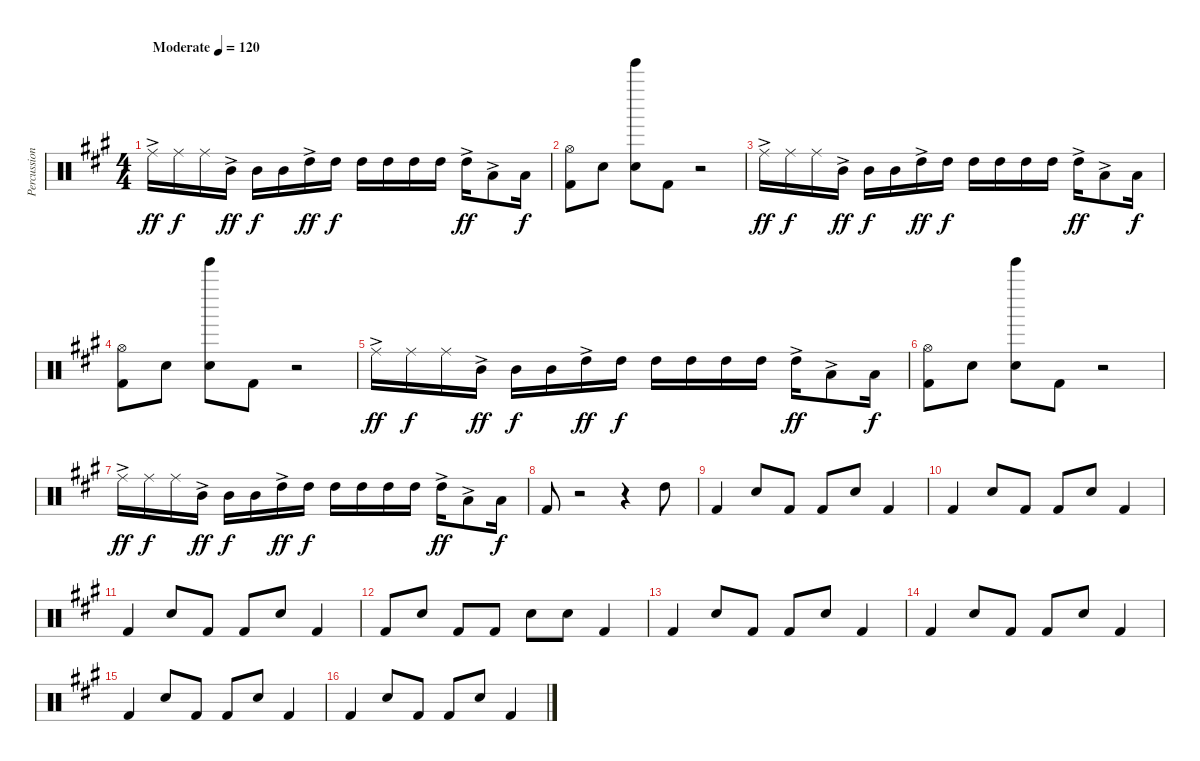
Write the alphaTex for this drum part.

\track ("Percussion" "Percussion") {instrument percussion}
\staff {score}
\articulation defaults
\ts (4 4)
\tempo (120 "Moderate")
\clef neutral
\ks a "Ride (middle)"{ac}.16{dy ff} "Ride (middle)".16{dy f} "Ride (middle)".16 "Mid Tom (hit)"{ac}.16{dy ff} "Mid Tom (hit)".16{dy f} "Mid Tom (hit)".16 "High Tom (hit)"{ac}.16{dy ff} "High Tom (hit)".16{dy f} "High Tom (hit)".16 "High Tom (hit)".16 "High Tom (hit)".16 "High Tom (hit)".16 "High Tom (hit)"{ac}.16{dy ff} "Low Floor Tom (hit)"{ac}.8 "Low Floor Tom (hit)".16{dy f}
|
("Hi-Hat (open)" "Kick (hit) 2").8 "Snare (hit) 2".8 ("Tinkle Bell (hit)" "Snare (hit) 2").8 "Kick (hit) 2".8 r.2 |
"Ride (middle)"{ac}.16{dy ff} "Ride (middle)".16{dy f} "Ride (middle)".16 "Mid Tom (hit)"{ac}.16{dy ff} "Mid Tom (hit)".16{dy f} "Mid Tom (hit)".16 "High Tom (hit)"{ac}.16{dy ff} "High Tom (hit)".16{dy f} "High Tom (hit)".16 "High Tom (hit)".16 "High Tom (hit)".16 "High Tom (hit)".16 "High Tom (hit)"{ac}.16{dy ff} "Low Floor Tom (hit)"{ac}.8 "Low Floor Tom (hit)".16{dy f} |
("Hi-Hat (open)" "Kick (hit) 2").8 "Snare (hit) 2".8 ("Tinkle Bell (hit)" "Snare (hit) 2").8 "Kick (hit) 2".8 r.2 |
"Ride (middle)"{ac}.16{dy ff} "Ride (middle)".16{dy f} "Ride (middle)".16 "Mid Tom (hit)"{ac}.16{dy ff} "Mid Tom (hit)".16{dy f} "Mid Tom (hit)".16 "High Tom (hit)"{ac}.16{dy ff} "High Tom (hit)".16{dy f} "High Tom (hit)".16 "High Tom (hit)".16 "High Tom (hit)".16 "High Tom (hit)".16 "High Tom (hit)"{ac}.16{dy ff} "Low Floor Tom (hit)"{ac}.8 "Low Floor Tom (hit)".16{dy f} |
("Hi-Hat (open)" "Kick (hit) 2").8 "Snare (hit) 2".8 ("Tinkle Bell (hit)" "Snare (hit) 2").8 "Kick (hit) 2".8 r.2 |
"Ride (middle)"{ac}.16{dy ff} "Ride (middle)".16{dy f} "Ride (middle)".16 "Mid Tom (hit)"{ac}.16{dy ff} "Mid Tom (hit)".16{dy f} "Mid Tom (hit)".16 "High Tom (hit)"{ac}.16{dy ff} "High Tom (hit)".16{dy f} "High Tom (hit)".16 "High Tom (hit)".16 "High Tom (hit)".16 "High Tom (hit)".16 "High Tom (hit)"{ac}.16{dy ff} "Low Floor Tom (hit)"{ac}.8 "Low Floor Tom (hit)".16{dy f} |
"Kick (hit) 2".8 r.2 r.4 "High Tom (hit)".8 |
"Kick (hit) 2".4 "Snare (hit) 2".8 "Kick (hit) 2".8 "Kick (hit) 2".8 "Snare (hit) 2".8 "Kick (hit) 2".4 |
"Kick (hit) 2".4 "Snare (hit) 2".8 "Kick (hit) 2".8 "Kick (hit) 2".8 "Snare (hit) 2".8 "Kick (hit) 2".4 |
"Kick (hit) 2".4 "Snare (hit) 2".8 "Kick (hit) 2".8 "Kick (hit) 2".8 "Snare (hit) 2".8 "Kick (hit) 2".4 |
"Kick (hit) 2".8 "Snare (hit) 2".8 "Kick (hit) 2".8 "Kick (hit) 2".8 "Snare (hit) 2".8 "Snare (hit) 2".8 "Kick (hit) 2".4 |
"Kick (hit) 2".4 "Snare (hit) 2".8 "Kick (hit) 2".8 "Kick (hit) 2".8 "Snare (hit) 2".8 "Kick (hit) 2".4 |
"Kick (hit) 2".4 "Snare (hit) 2".8 "Kick (hit) 2".8 "Kick (hit) 2".8 "Snare (hit) 2".8 "Kick (hit) 2".4 |
"Kick (hit) 2".4 "Snare (hit) 2".8 "Kick (hit) 2".8 "Kick (hit) 2".8 "Snare (hit) 2".8 "Kick (hit) 2".4 |
"Kick (hit) 2".4 "Snare (hit) 2".8 "Kick (hit) 2".8 "Kick (hit) 2".8 "Snare (hit) 2".8 "Kick (hit) 2".4
